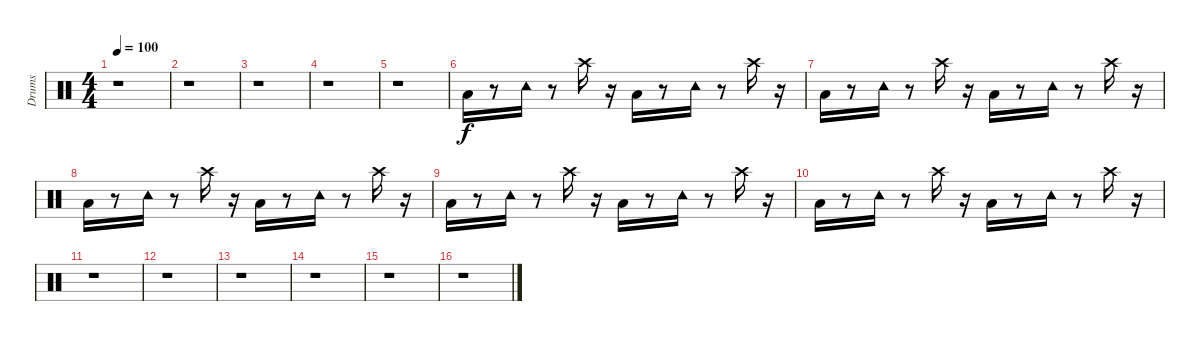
\track ("Drums" "Drums") {instrument percussion}
\staff {score}
\articulation defaults
\ts (4 4)
\tempo 100
\clef neutral
\ks c
r.1{dy f} |
r.1 |
r.1 |
r.1 |
r.1 |
"Low Floor Tom (hit)".16 r.8 "Tambourine (hit)".16 r.8 "Crash high (hit)".16 r.16 "Low Floor Tom (hit)".16 r.8 "Tambourine (hit)".16 r.8 "Crash high (hit)".16 r.16 |
"Low Floor Tom (hit)".16 r.8 "Tambourine (hit)".16 r.8 "Crash high (hit)".16 r.16 "Low Floor Tom (hit)".16 r.8 "Tambourine (hit)".16 r.8 "Crash high (hit)".16 r.16 |
"Low Floor Tom (hit)".16 r.8 "Tambourine (hit)".16 r.8 "Crash high (hit)".16 r.16 "Low Floor Tom (hit)".16 r.8 "Tambourine (hit)".16 r.8 "Crash high (hit)".16 r.16 |
"Low Floor Tom (hit)".16 r.8 "Tambourine (hit)".16 r.8 "Crash high (hit)".16 r.16 "Low Floor Tom (hit)".16 r.8 "Tambourine (hit)".16 r.8 "Crash high (hit)".16 r.16 |
"Low Floor Tom (hit)".16 r.8 "Tambourine (hit)".16 r.8 "Crash high (hit)".16 r.16 "Low Floor Tom (hit)".16 r.8 "Tambourine (hit)".16 r.8 "Crash high (hit)".16 r.16 |
r.1 |
r.1 |
r.1 |
r.1 |
r.1 |
r.1
